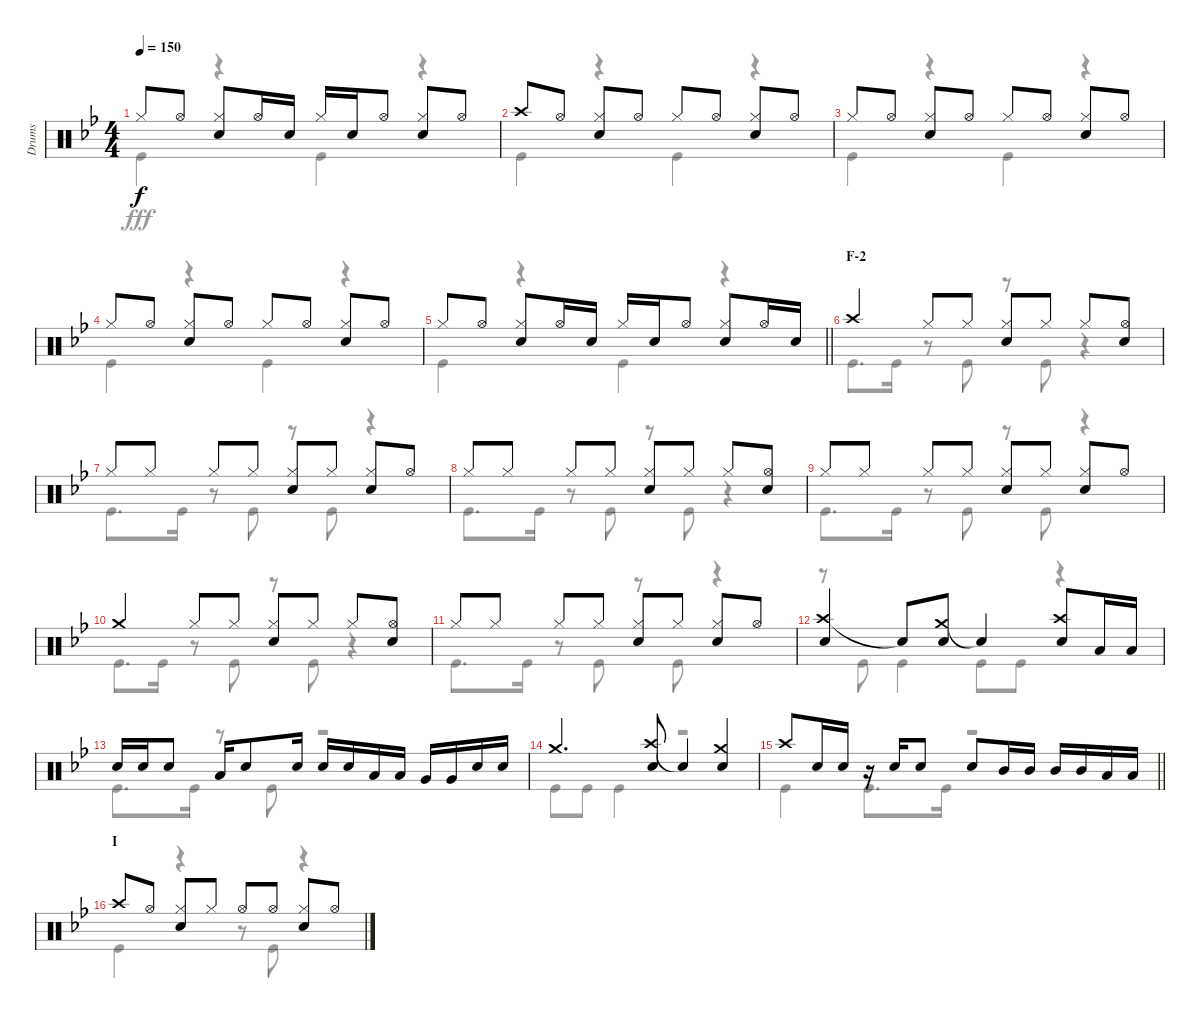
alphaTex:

\track ("Drums" "Drums") {instrument percussion}
\staff {score}
\articulation defaults
\voice
\ts (4 4)
\tempo 150
\clef neutral
\ks bb "Hi-Hat (closed)".8{dy f} "Hi-Hat (open)".8
("Hi-Hat (closed)" "Snare (hit) 2").8 "Hi-Hat (open)".16 "Snare (hit) 2".16 "Hi-Hat (closed)".16 "Snare (hit) 2".16 "Hi-Hat (open)".8 ("Hi-Hat (closed)" "Snare (hit) 2").8 "Hi-Hat (open)".8 |
"Crash high (hit)".8 "Hi-Hat (open)".8 ("Hi-Hat (closed)" "Snare (hit) 2").8 "Hi-Hat (open)".8 "Hi-Hat (closed)".8 "Hi-Hat (open)".8 ("Hi-Hat (closed)" "Snare (hit) 2").8 "Hi-Hat (open)".8 |
"Hi-Hat (closed)".8 "Hi-Hat (open)".8 ("Hi-Hat (closed)" "Snare (hit) 2").8 "Hi-Hat (open)".8 "Hi-Hat (closed)".8 "Hi-Hat (open)".8 ("Hi-Hat (closed)" "Snare (hit) 2").8 "Hi-Hat (open)".8 |
"Hi-Hat (closed)".8 "Hi-Hat (open)".8 ("Hi-Hat (closed)" "Snare (hit) 2").8 "Hi-Hat (open)".8 "Hi-Hat (closed)".8 "Hi-Hat (open)".8 ("Hi-Hat (closed)" "Snare (hit) 2").8 "Hi-Hat (open)".8 |
\barLineRight lightlight "Hi-Hat (closed)".8 "Hi-Hat (open)".8
("Hi-Hat (closed)" "Snare (hit) 2").8 "Hi-Hat (open)".16 "Snare (hit) 2".16 "Hi-Hat (closed)".16 "Snare (hit) 2".16 "Hi-Hat (open)".8 ("Hi-Hat (closed)" "Snare (hit) 2").8 "Hi-Hat (open)".16 "Snare (hit) 2".16 |
\section ("" "F-2")
"Crash high (hit)".4 "Hi-Hat (closed)".8 "Hi-Hat (closed)".8 ("Hi-Hat (closed)" "Snare (hit) 2").8 "Hi-Hat (closed)".8 "Hi-Hat (closed)".8 ("Hi-Hat (open)" "Snare (hit) 2").8 |
"Hi-Hat (closed)".8 "Hi-Hat (closed)".8 "Hi-Hat (closed)".8 "Hi-Hat (closed)".8 ("Hi-Hat (closed)" "Snare (hit) 2").8 "Hi-Hat (closed)".8 ("Hi-Hat (closed)" "Snare (hit) 2").8 "Hi-Hat (open)".8 |
"Hi-Hat (closed)".8 "Hi-Hat (closed)".8 "Hi-Hat (closed)".8 "Hi-Hat (closed)".8 ("Hi-Hat (closed)" "Snare (hit) 2").8 "Hi-Hat (closed)".8 "Hi-Hat (closed)".8 ("Hi-Hat (open)" "Snare (hit) 2").8 |
"Hi-Hat (closed)".8 "Hi-Hat (closed)".8 "Hi-Hat (closed)".8 "Hi-Hat (closed)".8 ("Hi-Hat (closed)" "Snare (hit) 2").8 "Hi-Hat (closed)".8 ("Hi-Hat (closed)" "Snare (hit) 2").8 "Hi-Hat (open)".8 |
"Crash medium (hit)".4 "Hi-Hat (closed)".8 "Hi-Hat (closed)".8 ("Hi-Hat (closed)" "Snare (hit) 2").8 "Hi-Hat (closed)".8 "Hi-Hat (closed)".8 ("Hi-Hat (open)" "Snare (hit) 2").8 |
"Hi-Hat (closed)".8 "Hi-Hat (closed)".8 "Hi-Hat (closed)".8 "Hi-Hat (closed)".8 ("Hi-Hat (closed)" "Snare (hit) 2").8 "Hi-Hat (closed)".8 ("Hi-Hat (closed)" "Snare (hit) 2").8 "Hi-Hat (open)".8 |
("Crash high (hit)" "Snare (hit) 2").4 "Snare (hit)"{t}.8 ("Crash medium (hit)" "Snare (hit) 2").8 "Snare (hit)"{t}.4 ("Crash high (hit)" "Snare (hit) 2").8 "Low Tom (hit)".16 "Low Tom (hit)".16 |
"Snare (hit) 2".16 "Snare (hit) 2".16 "Snare (hit) 2".8 "Low Tom (hit)".16 "Snare (hit) 2".8 "Snare (hit) 2".16 "Snare (hit) 2".16 "Snare (hit) 2".16 "Low Tom (hit)".16 "Low Tom (hit)".16 "Very Low Tom (hit)".16 "Very Low Tom (hit)".16 "Snare (hit) 2".16 "Snare (hit) 2".16 |
"Crash medium (hit)".4{d} ("Crash high (hit)" "Snare (hit) 2").8 "Snare (hit)"{t}.4 ("Crash medium (hit)" "Snare (hit) 2").4 |
\barLineRight lightlight "Crash high (hit)".8 "Snare (hit) 2".16 "Snare (hit) 2".16
r.16 "Snare (hit) 2".16 "Snare (hit) 2".8 "Snare (hit) 2".8 "Mid Tom (hit)".16 "Mid Tom (hit)".16 "Mid Tom (hit)".16 "Mid Tom (hit)".16 "Low Tom (hit)".16 "Low Tom (hit)".16 |
\section ("" "I")
"Crash high (hit)".8 "Hi-Hat (open)".8 ("Hi-Hat (closed)" "Snare (hit) 2").8 "Hi-Hat (closed)".8 "Hi-Hat (open)".8 "Hi-Hat (open)".8 ("Hi-Hat (closed)" "Snare (hit) 2").8 "Hi-Hat (open)".8
\voice
\clef neutral
\ottava regular
\simile none
\ks bb "Kick (hit)".4{dy fff}
r.4 "Kick (hit)".4 r.4 |
"Kick (hit)".4 r.4 "Kick (hit)".4 r.4 |
"Kick (hit)".4 r.4 "Kick (hit)".4 r.4 |
"Kick (hit)".4 r.4 "Kick (hit)".4 r.4 |
\barLineRight lightlight "Kick (hit)".4
r.4 "Kick (hit)".4 r.4 |
"Kick (hit)".8{d} "Kick (hit)".16 r.8 "Kick (hit)".8 r.8 "Kick (hit)".8 r.4 |
"Kick (hit)".8{d} "Kick (hit)".16 r.8 "Kick (hit)".8 r.8 "Kick (hit)".8 r.4 |
"Kick (hit)".8{d} "Kick (hit)".16 r.8 "Kick (hit)".8 r.8 "Kick (hit)".8 r.4 |
"Kick (hit)".8{d} "Kick (hit)".16 r.8 "Kick (hit)".8 r.8 "Kick (hit)".8 r.4 |
"Kick (hit)".8{d} "Kick (hit)".16 r.8 "Kick (hit)".8 r.8 "Kick (hit)".8 r.4 |
"Kick (hit)".8{d} "Kick (hit)".16 r.8 "Kick (hit)".8 r.8 "Kick (hit)".8 r.4 |
r.8 "Kick (hit)".8 "Kick (hit)".4 "Kick (hit)".8 "Kick (hit)".8 r.4 |
"Kick (hit)".8{d} "Kick (hit)".16 r.8 "Kick (hit)".8 r.2 |
"Kick (hit)".8 "Kick (hit)".8 "Kick (hit)".4 r.2 |
\barLineRight lightlight "Kick (hit)".4 "Kick (hit)".8{d} "Kick (hit)".16
r.2 |
"Kick (hit)".4 r.4 r.8 "Kick (hit)".8 r.4
